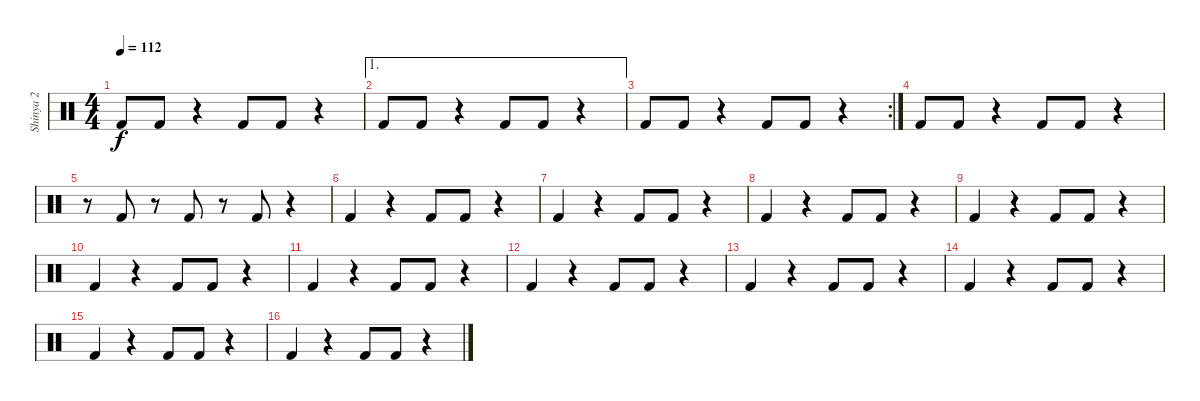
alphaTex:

\track ("Shinya 2" "Shinya 2") {instrument percussion}
\staff {score}
\articulation defaults
\ts (4 4)
\tempo 112
\clef neutral
\ks c "Kick (hit) 2".8{dy f} "Kick (hit) 2".8
r.4 "Kick (hit) 2".8 "Kick (hit) 2".8 r.4 |
\ae 1 "Kick (hit) 2".8 "Kick (hit) 2".8
r.4 "Kick (hit) 2".8 "Kick (hit) 2".8 r.4 |
\rc 2 "Kick (hit) 2".8 "Kick (hit) 2".8
r.4 "Kick (hit) 2".8 "Kick (hit) 2".8 r.4 |
"Kick (hit) 2".8 "Kick (hit) 2".8 r.4 "Kick (hit) 2".8 "Kick (hit) 2".8 r.4 |
r.8 "Kick (hit) 2".8 r.8 "Kick (hit) 2".8 r.8 "Kick (hit) 2".8 r.4 |
"Kick (hit) 2".4 r.4 "Kick (hit) 2".8 "Kick (hit) 2".8 r.4 |
"Kick (hit) 2".4 r.4 "Kick (hit) 2".8 "Kick (hit) 2".8 r.4 |
"Kick (hit) 2".4 r.4 "Kick (hit) 2".8 "Kick (hit) 2".8 r.4 |
"Kick (hit) 2".4 r.4 "Kick (hit) 2".8 "Kick (hit) 2".8 r.4 |
"Kick (hit) 2".4 r.4 "Kick (hit) 2".8 "Kick (hit) 2".8 r.4 |
"Kick (hit) 2".4 r.4 "Kick (hit) 2".8 "Kick (hit) 2".8 r.4 |
"Kick (hit) 2".4 r.4 "Kick (hit) 2".8 "Kick (hit) 2".8 r.4 |
"Kick (hit) 2".4 r.4 "Kick (hit) 2".8 "Kick (hit) 2".8 r.4 |
"Kick (hit) 2".4 r.4 "Kick (hit) 2".8 "Kick (hit) 2".8 r.4 |
"Kick (hit) 2".4 r.4 "Kick (hit) 2".8 "Kick (hit) 2".8 r.4 |
"Kick (hit) 2".4 r.4 "Kick (hit) 2".8 "Kick (hit) 2".8 r.4
